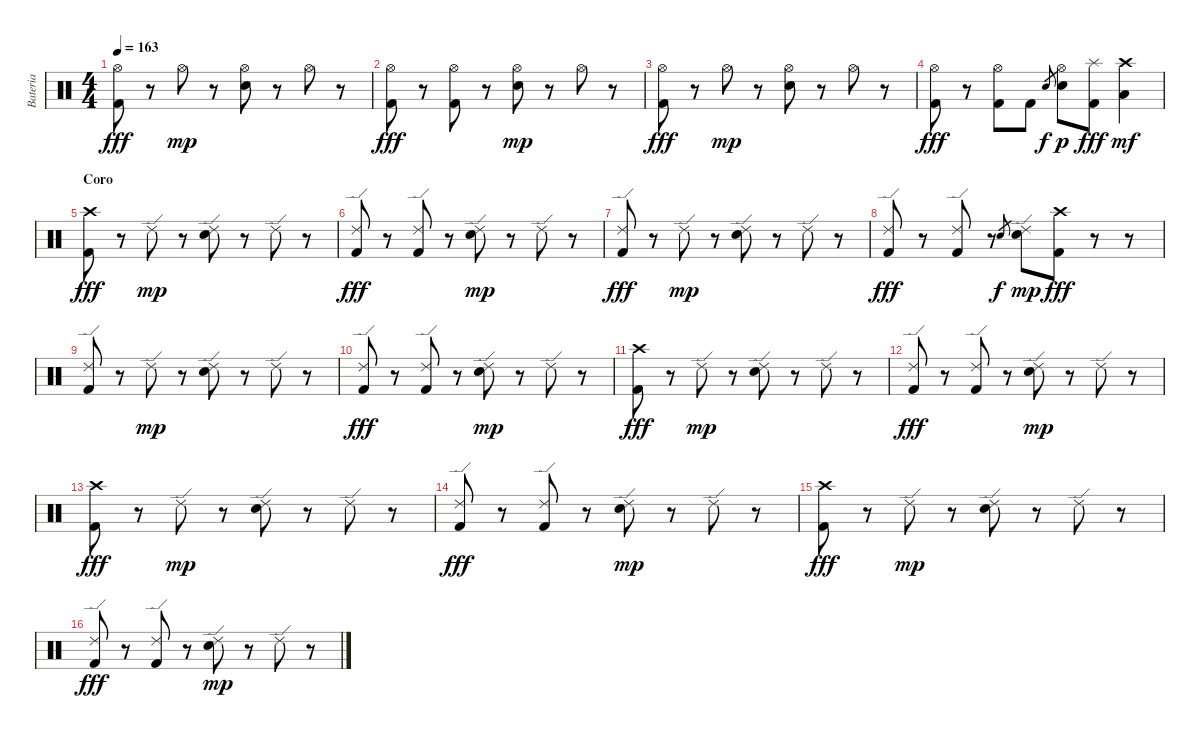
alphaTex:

\track ("Bateria" "Bateria") {instrument percussion}
\staff {score}
\articulation defaults
\ts (4 4)
\tempo 163
\clef neutral
\ks c
("Hi-Hat (open)" "Kick (hit) 2").8{dy fff} r.8 "Hi-Hat (open)".8{dy mp} r.8 ("Hi-Hat (open)" "Electric Snare (hit)").8 r.8 "Hi-Hat (open)".8 r.8 |
("Hi-Hat (open)" "Kick (hit) 2").8{dy fff} r.8 ("Hi-Hat (open)" "Kick (hit) 2").8 r.8 ("Hi-Hat (open)" "Electric Snare (hit)").8{dy mp} r.8 "Hi-Hat (open)".8 r.8 |
("Hi-Hat (open)" "Kick (hit) 2").8{dy fff} r.8 "Hi-Hat (open)".8{dy mp} r.8 ("Hi-Hat (open)" "Electric Snare (hit)").8 r.8 "Hi-Hat (open)".8 r.8 |
("Hi-Hat (open)" "Kick (hit) 2").8{dy fff} r.8 ("Hi-Hat (open)" "Kick (hit) 2").8 "Kick (hit) 2".8 "Electric Snare (hit)".8{gr dy f} ("Hi-Hat (open)" "Electric Snare (hit)").8{dy p} ("Splash (hit)" "Kick (hit) 2").8{dy fff} ("Crash high (hit)" "Low Tom (hit)").4{dy mf} |
\section ("" "Coro")
("Crash high (hit)" "Kick (hit) 2").8{dy fff} r.8 "Ride (edge) 2".8{dy mp} r.8 ("Ride (edge) 2" "Electric Snare (hit)").8 r.8 "Ride (edge) 2".8 r.8 |
("Ride (edge) 2" "Kick (hit) 2").8{dy fff} r.8 ("Ride (edge) 2" "Kick (hit) 2").8 r.8 ("Ride (edge) 2" "Electric Snare (hit)").8{dy mp} r.8 "Ride (edge) 2".8 r.8 |
("Ride (edge) 2" "Kick (hit) 2").8{dy fff} r.8 "Ride (edge) 2".8{dy mp} r.8 ("Ride (edge) 2" "Electric Snare (hit)").8 r.8 "Ride (edge) 2".8 r.8 |
("Ride (edge) 2" "Kick (hit) 2").8{dy fff} r.8 ("Ride (edge) 2" "Kick (hit) 2").8 r.8 "Electric Snare (hit)".8{gr dy f} ("Ride (edge) 2" "Electric Snare (hit)").8{dy mp} ("Crash high (hit)" "Kick (hit) 2").8{dy fff} r.8 r.8 |
("Ride (edge) 2" "Kick (hit) 2").8 r.8 "Ride (edge) 2".8{dy mp} r.8 ("Ride (edge) 2" "Electric Snare (hit)").8 r.8 "Ride (edge) 2".8 r.8 |
("Ride (edge) 2" "Kick (hit) 2").8{dy fff} r.8 ("Ride (edge) 2" "Kick (hit) 2").8 r.8 ("Ride (edge) 2" "Electric Snare (hit)").8{dy mp} r.8 "Ride (edge) 2".8 r.8 |
("Crash high (hit)" "Kick (hit) 2").8{dy fff} r.8 "Ride (edge) 2".8{dy mp} r.8 ("Ride (edge) 2" "Electric Snare (hit)").8 r.8 "Ride (edge) 2".8 r.8 |
("Ride (edge) 2" "Kick (hit) 2").8{dy fff} r.8 ("Ride (edge) 2" "Kick (hit) 2").8 r.8 ("Ride (edge) 2" "Electric Snare (hit)").8{dy mp} r.8 "Ride (edge) 2".8 r.8 |
("Crash high (hit)" "Kick (hit) 2").8{dy fff} r.8 "Ride (edge) 2".8{dy mp} r.8 ("Ride (edge) 2" "Electric Snare (hit)").8 r.8 "Ride (edge) 2".8 r.8 |
("Ride (edge) 2" "Kick (hit) 2").8{dy fff} r.8 ("Ride (edge) 2" "Kick (hit) 2").8 r.8 ("Ride (edge) 2" "Electric Snare (hit)").8{dy mp} r.8 "Ride (edge) 2".8 r.8 |
("Crash high (hit)" "Kick (hit) 2").8{dy fff} r.8 "Ride (edge) 2".8{dy mp} r.8 ("Ride (edge) 2" "Electric Snare (hit)").8 r.8 "Ride (edge) 2".8 r.8 |
("Ride (edge) 2" "Kick (hit) 2").8{dy fff} r.8 ("Ride (edge) 2" "Kick (hit) 2").8 r.8 ("Ride (edge) 2" "Electric Snare (hit)").8{dy mp} r.8 "Ride (edge) 2".8 r.8
